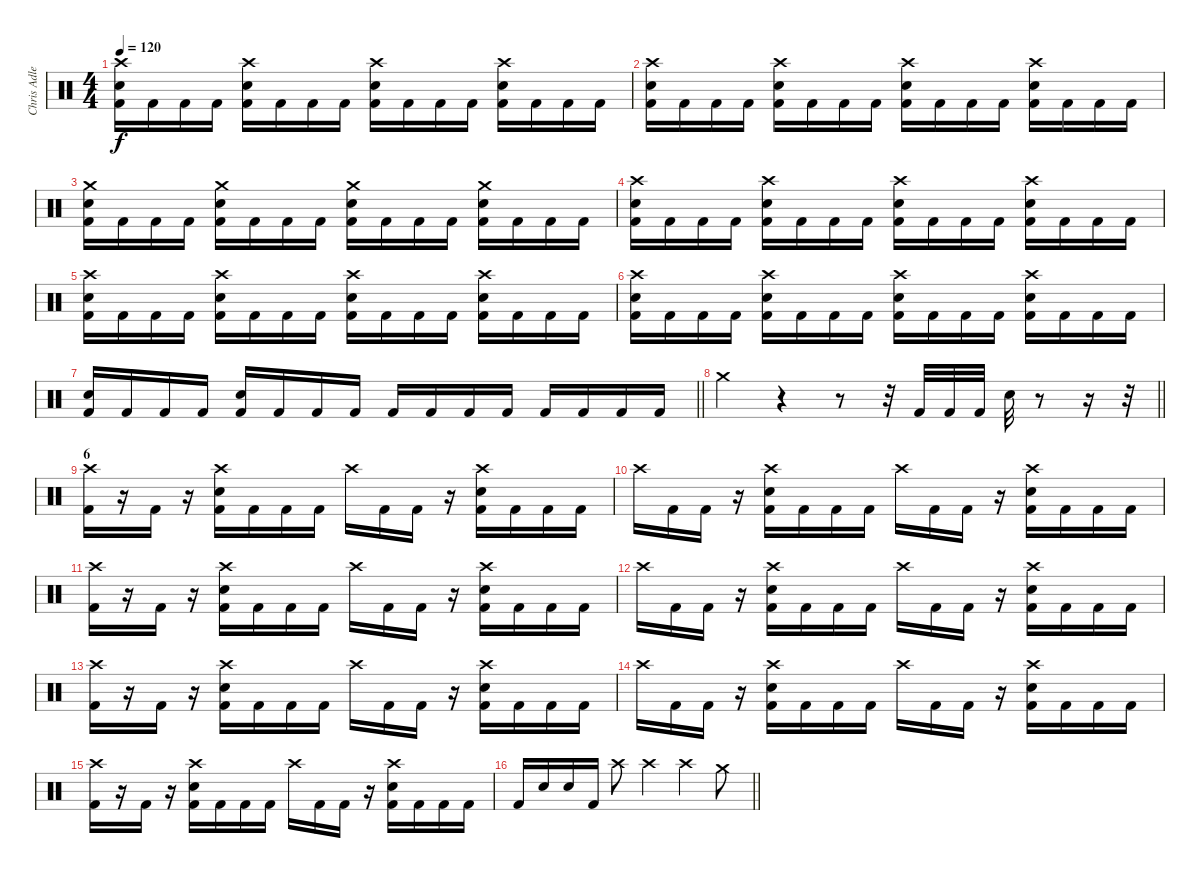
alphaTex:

\track ("Chris Adler" "Chris Adle") {instrument percussion}
\staff {score}
\articulation defaults
\ts (4 4)
\tempo 120
\clef neutral
\ks c
("Crash high (hit)" "Electric Snare (hit)" "Kick (hit) 2").16{dy f} "Kick (hit) 2".16 "Kick (hit) 2".16 "Kick (hit) 2".16 ("Crash high (hit)" "Electric Snare (hit)" "Kick (hit) 2").16 "Kick (hit) 2".16 "Kick (hit) 2".16 "Kick (hit) 2".16 ("Crash high (hit)" "Electric Snare (hit)" "Kick (hit) 2").16 "Kick (hit) 2".16 "Kick (hit) 2".16 "Kick (hit) 2".16 ("Crash high (hit)" "Electric Snare (hit)" "Kick (hit) 2").16 "Kick (hit) 2".16 "Kick (hit) 2".16 "Kick (hit) 2".16 |
("Crash high (hit)" "Electric Snare (hit)" "Kick (hit) 2").16 "Kick (hit) 2".16 "Kick (hit) 2".16 "Kick (hit) 2".16 ("Crash high (hit)" "Electric Snare (hit)" "Kick (hit) 2").16 "Kick (hit) 2".16 "Kick (hit) 2".16 "Kick (hit) 2".16 ("Crash high (hit)" "Electric Snare (hit)" "Kick (hit) 2").16 "Kick (hit) 2".16 "Kick (hit) 2".16 "Kick (hit) 2".16 ("Crash high (hit)" "Electric Snare (hit)" "Kick (hit) 2").16 "Kick (hit) 2".16 "Kick (hit) 2".16 "Kick (hit) 2".16 |
("Crash medium (hit)" "Electric Snare (hit)" "Kick (hit) 2").16 "Kick (hit) 2".16 "Kick (hit) 2".16 "Kick (hit) 2".16 ("Crash medium (hit)" "Electric Snare (hit)" "Kick (hit) 2").16 "Kick (hit) 2".16 "Kick (hit) 2".16 "Kick (hit) 2".16 ("Crash medium (hit)" "Electric Snare (hit)" "Kick (hit) 2").16 "Kick (hit) 2".16 "Kick (hit) 2".16 "Kick (hit) 2".16 ("Crash medium (hit)" "Electric Snare (hit)" "Kick (hit) 2").16 "Kick (hit) 2".16 "Kick (hit) 2".16 "Kick (hit) 2".16 |
("Crash high (hit)" "Electric Snare (hit)" "Kick (hit) 2").16 "Kick (hit) 2".16 "Kick (hit) 2".16 "Kick (hit) 2".16 ("Crash high (hit)" "Electric Snare (hit)" "Kick (hit) 2").16 "Kick (hit) 2".16 "Kick (hit) 2".16 "Kick (hit) 2".16 ("Crash high (hit)" "Electric Snare (hit)" "Kick (hit) 2").16 "Kick (hit) 2".16 "Kick (hit) 2".16 "Kick (hit) 2".16 ("Crash high (hit)" "Electric Snare (hit)" "Kick (hit) 2").16 "Kick (hit) 2".16 "Kick (hit) 2".16 "Kick (hit) 2".16 |
("Crash high (hit)" "Electric Snare (hit)" "Kick (hit) 2").16 "Kick (hit) 2".16 "Kick (hit) 2".16 "Kick (hit) 2".16 ("Crash high (hit)" "Electric Snare (hit)" "Kick (hit) 2").16 "Kick (hit) 2".16 "Kick (hit) 2".16 "Kick (hit) 2".16 ("Crash high (hit)" "Electric Snare (hit)" "Kick (hit) 2").16 "Kick (hit) 2".16 "Kick (hit) 2".16 "Kick (hit) 2".16 ("Crash high (hit)" "Electric Snare (hit)" "Kick (hit) 2").16 "Kick (hit) 2".16 "Kick (hit) 2".16 "Kick (hit) 2".16 |
("Crash high (hit)" "Electric Snare (hit)" "Kick (hit) 2").16 "Kick (hit) 2".16 "Kick (hit) 2".16 "Kick (hit) 2".16 ("Crash high (hit)" "Electric Snare (hit)" "Kick (hit) 2").16 "Kick (hit) 2".16 "Kick (hit) 2".16 "Kick (hit) 2".16 ("Crash high (hit)" "Electric Snare (hit)" "Kick (hit) 2").16 "Kick (hit) 2".16 "Kick (hit) 2".16 "Kick (hit) 2".16 ("Crash high (hit)" "Electric Snare (hit)" "Kick (hit) 2").16 "Kick (hit) 2".16 "Kick (hit) 2".16 "Kick (hit) 2".16 |
\barLineRight lightlight
("Electric Snare (hit)" "Kick (hit) 2").16 "Kick (hit) 2".16 "Kick (hit) 2".16 "Kick (hit) 2".16 ("Electric Snare (hit)" "Kick (hit) 2").16 "Kick (hit) 2".16 "Kick (hit) 2".16 "Kick (hit) 2".16 "Kick (hit) 2".16 "Kick (hit) 2".16 "Kick (hit) 2".16 "Kick (hit) 2".16 "Kick (hit) 2".16 "Kick (hit) 2".16 "Kick (hit) 2".16 "Kick (hit) 2".16 |
\barLineRight lightlight "Crash medium (hit)".4
r.4 r.8 r.32 "Kick (hit) 2".32 "Kick (hit) 2".32 "Kick (hit) 2".32 "Electric Snare (hit)".32 r.8 r.16 r.32 |
\section ("" "6")
("Crash high (hit)" "Kick (hit) 2").16 r.16 "Kick (hit) 2".16 r.16 ("Crash high (hit)" "Electric Snare (hit)" "Kick (hit) 2").16 "Kick (hit) 2".16 "Kick (hit) 2".16 "Kick (hit) 2".16 "Crash high (hit)".16 "Kick (hit) 2".16 "Kick (hit) 2".16 r.16 ("Crash high (hit)" "Electric Snare (hit)" "Kick (hit) 2").16 "Kick (hit) 2".16 "Kick (hit) 2".16 "Kick (hit) 2".16 |
"Crash high (hit)".16 "Kick (hit) 2".16 "Kick (hit) 2".16 r.16 ("Crash high (hit)" "Electric Snare (hit)" "Kick (hit) 2").16 "Kick (hit) 2".16 "Kick (hit) 2".16 "Kick (hit) 2".16 "Crash high (hit)".16 "Kick (hit) 2".16 "Kick (hit) 2".16 r.16 ("Crash high (hit)" "Electric Snare (hit)" "Kick (hit) 2").16 "Kick (hit) 2".16 "Kick (hit) 2".16 "Kick (hit) 2".16 |
("Crash high (hit)" "Kick (hit) 2").16 r.16 "Kick (hit) 2".16 r.16 ("Crash high (hit)" "Electric Snare (hit)" "Kick (hit) 2").16 "Kick (hit) 2".16 "Kick (hit) 2".16 "Kick (hit) 2".16 "Crash high (hit)".16 "Kick (hit) 2".16 "Kick (hit) 2".16 r.16 ("Crash high (hit)" "Electric Snare (hit)" "Kick (hit) 2").16 "Kick (hit) 2".16 "Kick (hit) 2".16 "Kick (hit) 2".16 |
"Crash high (hit)".16 "Kick (hit) 2".16 "Kick (hit) 2".16 r.16 ("Crash high (hit)" "Electric Snare (hit)" "Kick (hit) 2").16 "Kick (hit) 2".16 "Kick (hit) 2".16 "Kick (hit) 2".16 "Crash high (hit)".16 "Kick (hit) 2".16 "Kick (hit) 2".16 r.16 ("Crash high (hit)" "Electric Snare (hit)" "Kick (hit) 2").16 "Kick (hit) 2".16 "Kick (hit) 2".16 "Kick (hit) 2".16 |
("Crash high (hit)" "Kick (hit) 2").16 r.16 "Kick (hit) 2".16 r.16 ("Crash high (hit)" "Electric Snare (hit)" "Kick (hit) 2").16 "Kick (hit) 2".16 "Kick (hit) 2".16 "Kick (hit) 2".16 "Crash high (hit)".16 "Kick (hit) 2".16 "Kick (hit) 2".16 r.16 ("Crash high (hit)" "Electric Snare (hit)" "Kick (hit) 2").16 "Kick (hit) 2".16 "Kick (hit) 2".16 "Kick (hit) 2".16 |
"Crash high (hit)".16 "Kick (hit) 2".16 "Kick (hit) 2".16 r.16 ("Crash high (hit)" "Electric Snare (hit)" "Kick (hit) 2").16 "Kick (hit) 2".16 "Kick (hit) 2".16 "Kick (hit) 2".16 "Crash high (hit)".16 "Kick (hit) 2".16 "Kick (hit) 2".16 r.16 ("Crash high (hit)" "Electric Snare (hit)" "Kick (hit) 2").16 "Kick (hit) 2".16 "Kick (hit) 2".16 "Kick (hit) 2".16 |
("Crash high (hit)" "Kick (hit) 2").16 r.16 "Kick (hit) 2".16 r.16 ("Crash high (hit)" "Electric Snare (hit)" "Kick (hit) 2").16 "Kick (hit) 2".16 "Kick (hit) 2".16 "Kick (hit) 2".16 "Crash high (hit)".16 "Kick (hit) 2".16 "Kick (hit) 2".16 r.16 ("Crash high (hit)" "Electric Snare (hit)" "Kick (hit) 2").16 "Kick (hit) 2".16 "Kick (hit) 2".16 "Kick (hit) 2".16 |
\barLineRight lightlight "Kick (hit) 2".16 "Electric Snare (hit)".16 "Electric Snare (hit)".16 "Kick (hit) 2".16 "Crash high (hit)".8 "Crash high (hit)".4 "Crash high (hit)".4 "Crash medium (hit)".8
